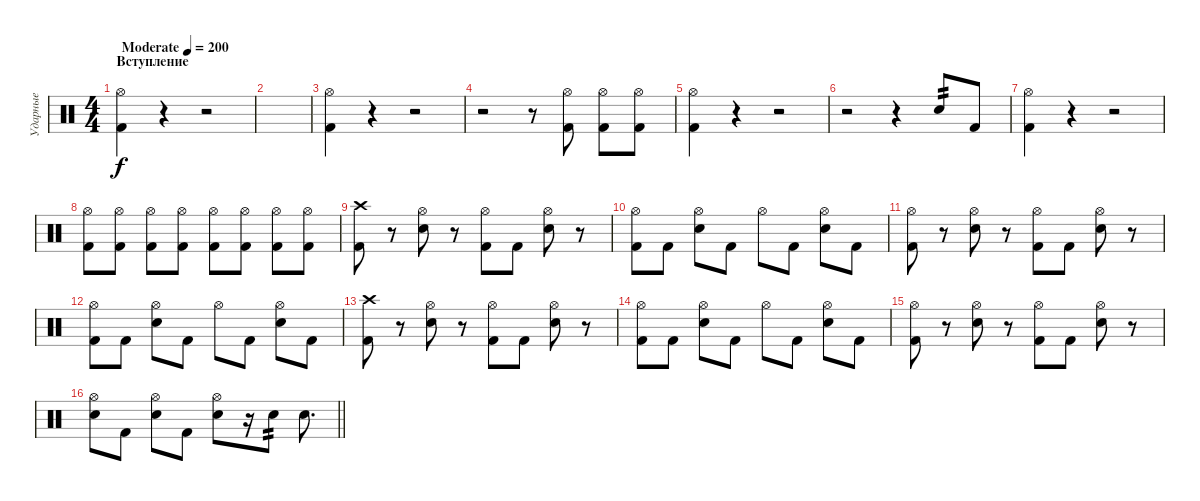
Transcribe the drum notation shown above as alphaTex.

\track ("Ударные" "Ударные") {instrument percussion}
\staff {score}
\articulation defaults
\ts (4 4)
\section ("" "Вступление")
\tempo (200 "Moderate")
\clef neutral
\ks c
("Hi-Hat (open)" "Kick (hit) 2").4{dy f} r.4 r.2 |
|
("Hi-Hat (open)" "Kick (hit) 2").4 r.4 r.2 |
r.2 r.8 ("Hi-Hat (open)" "Kick (hit) 2").8 ("Hi-Hat (open)" "Kick (hit) 2").8 ("Hi-Hat (open)" "Kick (hit) 2").8 |
("Hi-Hat (open)" "Kick (hit) 2").4 r.4 r.2 |
r.2 r.4 "Electric Snare (hit)".8{tp 2} "Kick (hit) 2".8 |
("Hi-Hat (open)" "Kick (hit) 2").4 r.4 r.2 |
("Hi-Hat (open)" "Kick (hit) 2").8 ("Hi-Hat (open)" "Kick (hit) 2").8 ("Hi-Hat (open)" "Kick (hit) 2").8 ("Hi-Hat (open)" "Kick (hit) 2").8 ("Hi-Hat (open)" "Kick (hit) 2").8 ("Hi-Hat (open)" "Kick (hit) 2").8 ("Hi-Hat (open)" "Kick (hit) 2").8 ("Hi-Hat (open)" "Kick (hit) 2").8 |
("Crash high (hit)" "Kick (hit) 2").8 r.8 ("Hi-Hat (open)" "Electric Snare (hit)").8 r.8 ("Hi-Hat (open)" "Kick (hit) 2").8 "Kick (hit) 2".8 ("Hi-Hat (open)" "Electric Snare (hit)").8 r.8 |
("Hi-Hat (open)" "Kick (hit) 2").8 "Kick (hit) 2".8 ("Hi-Hat (open)" "Electric Snare (hit)").8 "Kick (hit) 2".8 "Hi-Hat (open)".8 "Kick (hit) 2".8 ("Hi-Hat (open)" "Electric Snare (hit)").8 "Kick (hit) 2".8 |
("Hi-Hat (open)" "Kick (hit) 2").8 r.8 ("Hi-Hat (open)" "Electric Snare (hit)").8 r.8 ("Hi-Hat (open)" "Kick (hit) 2").8 "Kick (hit) 2".8 ("Hi-Hat (open)" "Electric Snare (hit)").8 r.8 |
("Hi-Hat (open)" "Kick (hit) 2").8 "Kick (hit) 2".8 ("Hi-Hat (open)" "Electric Snare (hit)").8 "Kick (hit) 2".8 "Hi-Hat (open)".8 "Kick (hit) 2".8 ("Hi-Hat (open)" "Electric Snare (hit)").8 "Kick (hit) 2".8 |
("Crash high (hit)" "Kick (hit) 2").8 r.8 ("Hi-Hat (open)" "Electric Snare (hit)").8 r.8 ("Hi-Hat (open)" "Kick (hit) 2").8 "Kick (hit) 2".8 ("Hi-Hat (open)" "Electric Snare (hit)").8 r.8 |
("Hi-Hat (open)" "Kick (hit) 2").8 "Kick (hit) 2".8 ("Hi-Hat (open)" "Electric Snare (hit)").8 "Kick (hit) 2".8 "Hi-Hat (open)".8 "Kick (hit) 2".8 ("Hi-Hat (open)" "Electric Snare (hit)").8 "Kick (hit) 2".8 |
("Hi-Hat (open)" "Kick (hit) 2").8 r.8 ("Hi-Hat (open)" "Electric Snare (hit)").8 r.8 ("Hi-Hat (open)" "Kick (hit) 2").8 "Kick (hit) 2".8 ("Hi-Hat (open)" "Electric Snare (hit)").8 r.8 |
\barLineRight lightlight
("Hi-Hat (open)" "Electric Snare (hit)").8 "Kick (hit) 2".8 ("Hi-Hat (open)" "Electric Snare (hit)").8 "Kick (hit) 2".8 ("Hi-Hat (open)" "Electric Snare (hit)").8 r.16 "Electric Snare (hit)".8{tp 2} "Electric Snare (hit)".8{d}
